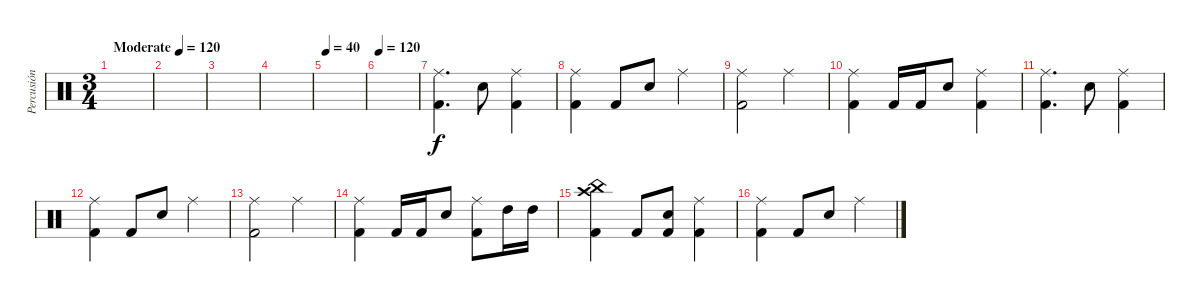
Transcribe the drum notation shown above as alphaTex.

\track ("Percusión" "Percusión") {instrument percussion}
\staff {score}
\articulation defaults
\ts (3 4)
\tempo (120 "Moderate")
\clef neutral
\ks c
|
|
|
|
\tempo 40
|
\tempo 120
|
("Ride (middle)" "Kick (hit) 2").4{d} "Snare (hit) 2".8 ("Ride (middle)" "Kick (hit) 2").4 |
("Ride (middle)" "Kick (hit) 2").4 "Kick (hit) 2".8 "Snare (hit) 2".8 "Ride (middle)".4 |
("Ride (middle)" "Kick (hit) 2").2 "Ride (middle)".4 |
("Ride (middle)" "Kick (hit) 2").4 "Kick (hit) 2".16 "Kick (hit) 2".16 "Snare (hit) 2".8 ("Ride (middle)" "Kick (hit) 2").4 |
("Ride (middle)" "Kick (hit) 2").4{d} "Snare (hit) 2".8 ("Ride (middle)" "Kick (hit) 2").4 |
("Ride (middle)" "Kick (hit) 2").4 "Kick (hit) 2".8 "Snare (hit) 2".8 "Ride (middle)".4 |
("Ride (middle)" "Kick (hit) 2").2 "Ride (middle)".4 |
("Ride (middle)" "Kick (hit) 2").4 "Kick (hit) 2".16 "Kick (hit) 2".16 "Snare (hit) 2".8 ("Ride (middle)" "Kick (hit) 2").8 "High Tom (hit)".16 "High Tom (hit)".16 |
("Crash high (hit)" "China (hit)" "Kick (hit) 2").4 "Kick (hit) 2".8 ("Snare (hit) 2" "Kick (hit) 2").8 ("Ride (middle)" "Kick (hit) 2").4 |
("Ride (middle)" "Kick (hit) 2").4 "Kick (hit) 2".8 "Snare (hit) 2".8 "Ride (middle)".4
